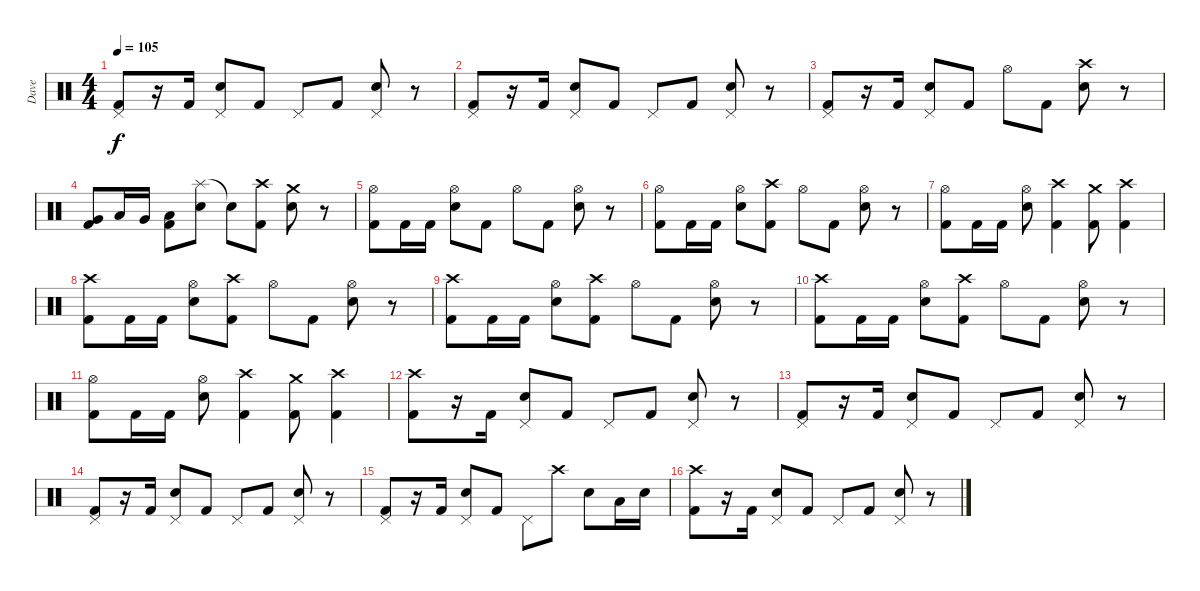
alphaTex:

\track ("Dave" "Dave") {instrument percussion}
\staff {score}
\articulation defaults
\ts (4 4)
\tempo 105
\clef neutral
\ks c
("Pedal Hi-Hat (hit)" "Kick (hit) 2").8{dy f} r.16 "Kick (hit) 2".16 ("Pedal Hi-Hat (hit)" "Snare (hit) 2").8 "Kick (hit) 2".8 "Pedal Hi-Hat (hit)".8 "Kick (hit) 2".8 ("Pedal Hi-Hat (hit)" "Snare (hit) 2").8 r.8 |
("Pedal Hi-Hat (hit)" "Kick (hit) 2").8 r.16 "Kick (hit) 2".16 ("Pedal Hi-Hat (hit)" "Snare (hit) 2").8 "Kick (hit) 2".8 "Pedal Hi-Hat (hit)".8 "Kick (hit) 2".8 ("Pedal Hi-Hat (hit)" "Snare (hit) 2").8 r.8 |
("Pedal Hi-Hat (hit)" "Kick (hit) 2").8 r.16 "Kick (hit) 2".16 ("Pedal Hi-Hat (hit)" "Snare (hit) 2").8 "Kick (hit) 2".8 "Hi-Hat (open)".8 "Kick (hit) 2".8 ("Crash high (hit)" "Snare (hit) 2").8 r.8 |
("Very Low Tom (hit)" "Kick (hit) 2").8 "Low Floor Tom (hit)".16 "Very Low Tom (hit)".16 ("Low Floor Tom (hit)" "Kick (hit) 2").8 ("Splash (hit)" "Snare (hit) 2").8 "Snare (hit)"{t}.8 ("Crash high (hit)" "Kick (hit) 2").8 ("Crash medium (hit)" "Snare (hit) 2").8 r.8 |
("Hi-Hat (open)" "Kick (hit) 2").8 "Kick (hit) 2".16 "Kick (hit) 2".16 ("Hi-Hat (open)" "Snare (hit) 2").8 "Kick (hit) 2".8 "Hi-Hat (open)".8 "Kick (hit) 2".8 ("Hi-Hat (open)" "Snare (hit) 2").8 r.8 |
("Hi-Hat (open)" "Kick (hit) 2").8 "Kick (hit) 2".16 "Kick (hit) 2".16 ("Hi-Hat (open)" "Snare (hit) 2").8 ("Crash high (hit)" "Kick (hit) 2").8 "Hi-Hat (open)".8 "Kick (hit) 2".8 ("Hi-Hat (open)" "Snare (hit) 2").8 r.8 |
("Hi-Hat (open)" "Kick (hit) 2").8 "Kick (hit) 2".16 "Kick (hit) 2".16 ("Hi-Hat (open)" "Snare (hit) 2").8 ("Crash high (hit)" "Kick (hit) 2").4 ("Crash medium (hit)" "Kick (hit) 2").8 ("Crash high (hit)" "Kick (hit) 2").4 |
("Crash high (hit)" "Kick (hit) 2").8 "Kick (hit) 2".16 "Kick (hit) 2".16 ("Hi-Hat (open)" "Snare (hit) 2").8 ("Crash high (hit)" "Kick (hit) 2").8 "Hi-Hat (open)".8 "Kick (hit) 2".8 ("Hi-Hat (open)" "Snare (hit) 2").8 r.8 |
("Crash high (hit)" "Kick (hit) 2").8 "Kick (hit) 2".16 "Kick (hit) 2".16 ("Hi-Hat (open)" "Snare (hit) 2").8 ("Crash high (hit)" "Kick (hit) 2").8 "Hi-Hat (open)".8 "Kick (hit) 2".8 ("Hi-Hat (open)" "Snare (hit) 2").8 r.8 |
("Crash high (hit)" "Kick (hit) 2").8 "Kick (hit) 2".16 "Kick (hit) 2".16 ("Hi-Hat (open)" "Snare (hit) 2").8 ("Crash high (hit)" "Kick (hit) 2").8 "Hi-Hat (open)".8 "Kick (hit) 2".8 ("Hi-Hat (open)" "Snare (hit) 2").8 r.8 |
("Hi-Hat (open)" "Kick (hit) 2").8 "Kick (hit) 2".16 "Kick (hit) 2".16 ("Hi-Hat (open)" "Snare (hit) 2").8 ("Crash high (hit)" "Kick (hit) 2").4 ("Crash medium (hit)" "Kick (hit) 2").8 ("Crash high (hit)" "Kick (hit) 2").4 |
("Crash high (hit)" "Kick (hit) 2").8 r.16 "Kick (hit) 2".16 ("Pedal Hi-Hat (hit)" "Snare (hit) 2").8 "Kick (hit) 2".8 "Pedal Hi-Hat (hit)".8 "Kick (hit) 2".8 ("Pedal Hi-Hat (hit)" "Snare (hit) 2").8 r.8 |
("Pedal Hi-Hat (hit)" "Kick (hit) 2").8 r.16 "Kick (hit) 2".16 ("Pedal Hi-Hat (hit)" "Snare (hit) 2").8 "Kick (hit) 2".8 "Pedal Hi-Hat (hit)".8 "Kick (hit) 2".8 ("Pedal Hi-Hat (hit)" "Snare (hit) 2").8 r.8 |
("Pedal Hi-Hat (hit)" "Kick (hit) 2").8 r.16 "Kick (hit) 2".16 ("Pedal Hi-Hat (hit)" "Snare (hit) 2").8 "Kick (hit) 2".8 "Pedal Hi-Hat (hit)".8 "Kick (hit) 2".8 ("Pedal Hi-Hat (hit)" "Snare (hit) 2").8 r.8 |
("Pedal Hi-Hat (hit)" "Kick (hit) 2").8 r.16 "Kick (hit) 2".16 ("Pedal Hi-Hat (hit)" "Snare (hit) 2").8 "Kick (hit) 2".8 "Pedal Hi-Hat (hit)".8 "Crash high (hit)".8 "Snare (hit) 2".8 "Low Floor Tom (hit)".16 "Snare (hit) 2".16 |
("Crash high (hit)" "Kick (hit) 2").8 r.16 "Kick (hit) 2".16 ("Pedal Hi-Hat (hit)" "Snare (hit) 2").8 "Kick (hit) 2".8 "Pedal Hi-Hat (hit)".8 "Kick (hit) 2".8 ("Pedal Hi-Hat (hit)" "Snare (hit) 2").8 r.8
